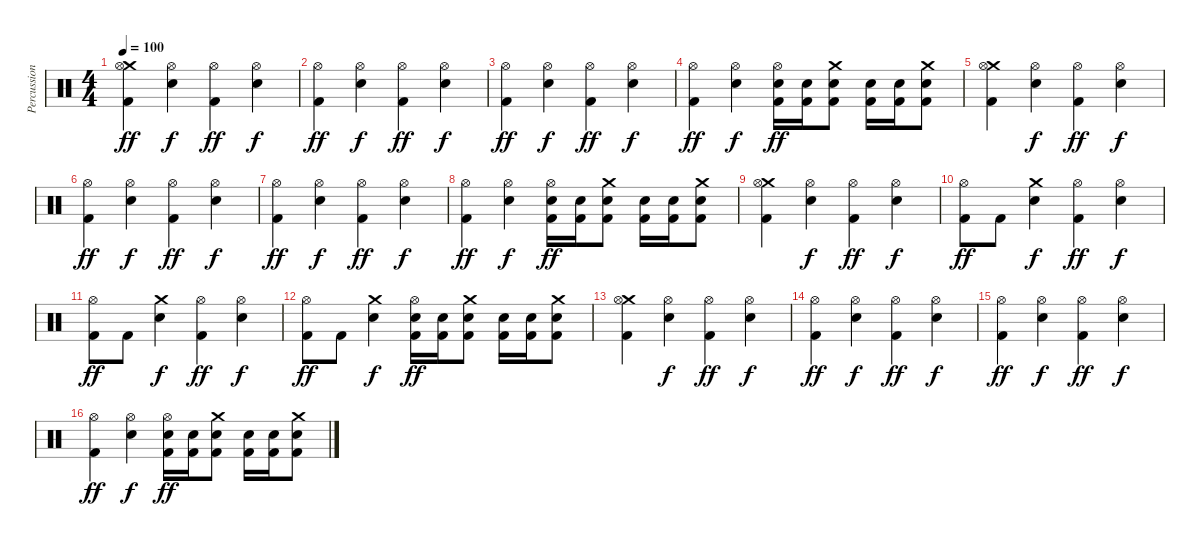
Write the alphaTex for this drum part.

\track ("Percussion" "Percussion") {instrument percussion}
\staff {score}
\articulation defaults
\ts (4 4)
\tempo 100
\clef neutral
\ks c
("Crash medium (hit)" "Hi-Hat (open)" "Kick (hit) 2").4{dy ff} ("Hi-Hat (open)" "Electric Snare (hit)").4{dy f} ("Hi-Hat (open)" "Kick (hit) 2").4{dy ff} ("Hi-Hat (open)" "Electric Snare (hit)").4{dy f} |
("Hi-Hat (open)" "Kick (hit) 2").4{dy ff} ("Hi-Hat (open)" "Electric Snare (hit)").4{dy f} ("Hi-Hat (open)" "Kick (hit) 2").4{dy ff} ("Hi-Hat (open)" "Electric Snare (hit)").4{dy f} |
("Hi-Hat (open)" "Kick (hit) 2").4{dy ff} ("Hi-Hat (open)" "Electric Snare (hit)").4{dy f} ("Hi-Hat (open)" "Kick (hit) 2").4{dy ff} ("Hi-Hat (open)" "Electric Snare (hit)").4{dy f} |
("Hi-Hat (open)" "Kick (hit) 2").4{dy ff} ("Hi-Hat (open)" "Electric Snare (hit)").4{dy f} ("Hi-Hat (open)" "Electric Snare (hit)" "Kick (hit) 2").16{dy ff} ("Electric Snare (hit)" "Kick (hit) 2").16 ("Crash medium (hit)" "Electric Snare (hit)" "Kick (hit) 2").8 ("Electric Snare (hit)" "Kick (hit) 2").16 ("Electric Snare (hit)" "Kick (hit) 2").16 ("Crash medium (hit)" "Electric Snare (hit)" "Kick (hit) 2").8 |
("Crash medium (hit)" "Hi-Hat (open)" "Kick (hit) 2").4 ("Hi-Hat (open)" "Electric Snare (hit)").4{dy f} ("Hi-Hat (open)" "Kick (hit) 2").4{dy ff} ("Hi-Hat (open)" "Electric Snare (hit)").4{dy f} |
("Hi-Hat (open)" "Kick (hit) 2").4{dy ff} ("Hi-Hat (open)" "Electric Snare (hit)").4{dy f} ("Hi-Hat (open)" "Kick (hit) 2").4{dy ff} ("Hi-Hat (open)" "Electric Snare (hit)").4{dy f} |
("Hi-Hat (open)" "Kick (hit) 2").4{dy ff} ("Hi-Hat (open)" "Electric Snare (hit)").4{dy f} ("Hi-Hat (open)" "Kick (hit) 2").4{dy ff} ("Hi-Hat (open)" "Electric Snare (hit)").4{dy f} |
("Hi-Hat (open)" "Kick (hit) 2").4{dy ff} ("Hi-Hat (open)" "Electric Snare (hit)").4{dy f} ("Hi-Hat (open)" "Electric Snare (hit)" "Kick (hit) 2").16{dy ff} ("Electric Snare (hit)" "Kick (hit) 2").16 ("Crash medium (hit)" "Electric Snare (hit)" "Kick (hit) 2").8 ("Electric Snare (hit)" "Kick (hit) 2").16 ("Electric Snare (hit)" "Kick (hit) 2").16 ("Crash medium (hit)" "Electric Snare (hit)" "Kick (hit) 2").8 |
("Crash medium (hit)" "Hi-Hat (open)" "Kick (hit) 2").4 ("Hi-Hat (open)" "Electric Snare (hit)").4{dy f} ("Hi-Hat (open)" "Kick (hit) 2").4{dy ff} ("Hi-Hat (open)" "Electric Snare (hit)").4{dy f} |
("Hi-Hat (open)" "Kick (hit) 2").8{dy ff} "Kick (hit) 2".8 ("Crash medium (hit)" "Electric Snare (hit)").4{dy f} ("Hi-Hat (open)" "Kick (hit) 2").4{dy ff} ("Hi-Hat (open)" "Electric Snare (hit)").4{dy f} |
("Hi-Hat (open)" "Kick (hit) 2").8{dy ff} "Kick (hit) 2".8 ("Crash medium (hit)" "Electric Snare (hit)").4{dy f} ("Hi-Hat (open)" "Kick (hit) 2").4{dy ff} ("Hi-Hat (open)" "Electric Snare (hit)").4{dy f} |
("Hi-Hat (open)" "Kick (hit) 2").8{dy ff} "Kick (hit) 2".8 ("Crash medium (hit)" "Electric Snare (hit)").4{dy f} ("Hi-Hat (open)" "Electric Snare (hit)" "Kick (hit) 2").16{dy ff} ("Electric Snare (hit)" "Kick (hit) 2").16 ("Crash medium (hit)" "Electric Snare (hit)" "Kick (hit) 2").8 ("Electric Snare (hit)" "Kick (hit) 2").16 ("Electric Snare (hit)" "Kick (hit) 2").16 ("Crash medium (hit)" "Electric Snare (hit)" "Kick (hit) 2").8 |
("Crash medium (hit)" "Hi-Hat (open)" "Kick (hit) 2").4 ("Hi-Hat (open)" "Electric Snare (hit)").4{dy f} ("Hi-Hat (open)" "Kick (hit) 2").4{dy ff} ("Hi-Hat (open)" "Electric Snare (hit)").4{dy f} |
("Hi-Hat (open)" "Kick (hit) 2").4{dy ff} ("Hi-Hat (open)" "Electric Snare (hit)").4{dy f} ("Hi-Hat (open)" "Kick (hit) 2").4{dy ff} ("Hi-Hat (open)" "Electric Snare (hit)").4{dy f} |
("Hi-Hat (open)" "Kick (hit) 2").4{dy ff} ("Hi-Hat (open)" "Electric Snare (hit)").4{dy f} ("Hi-Hat (open)" "Kick (hit) 2").4{dy ff} ("Hi-Hat (open)" "Electric Snare (hit)").4{dy f} |
("Hi-Hat (open)" "Kick (hit) 2").4{dy ff} ("Hi-Hat (open)" "Electric Snare (hit)").4{dy f} ("Hi-Hat (open)" "Electric Snare (hit)" "Kick (hit) 2").16{dy ff} ("Electric Snare (hit)" "Kick (hit) 2").16 ("Crash medium (hit)" "Electric Snare (hit)" "Kick (hit) 2").8 ("Electric Snare (hit)" "Kick (hit) 2").16 ("Electric Snare (hit)" "Kick (hit) 2").16 ("Crash medium (hit)" "Electric Snare (hit)" "Kick (hit) 2").8
